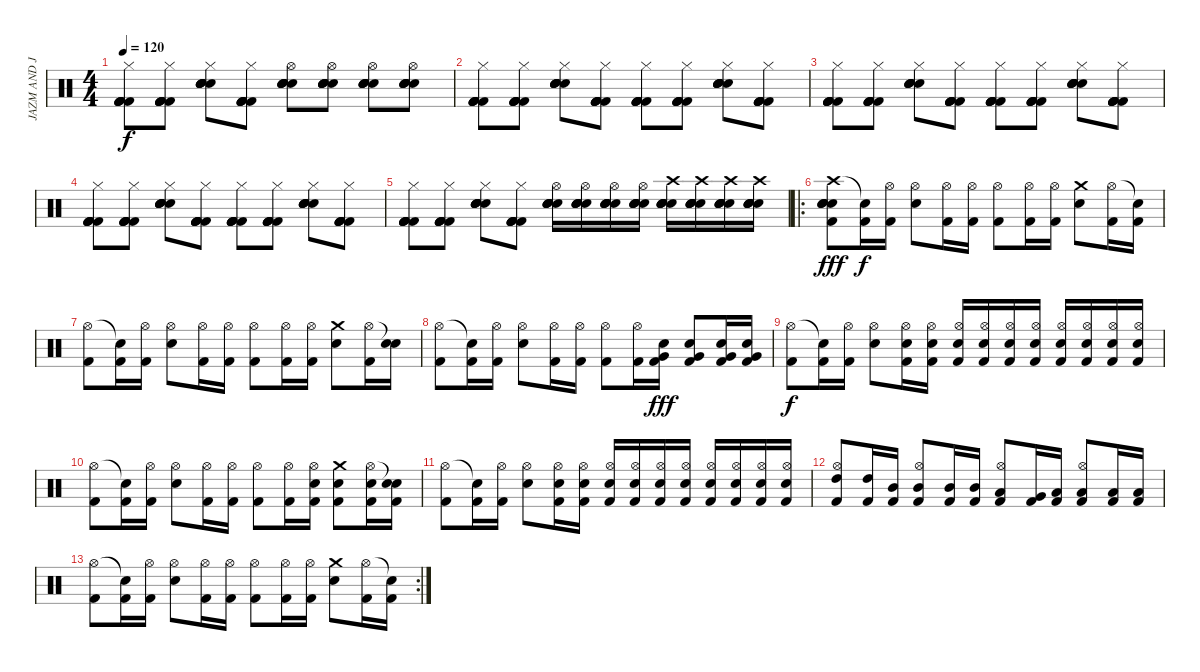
\track ("JAZM AND JOKER" "JAZM AND J") {instrument percussion}
\staff {score}
\articulation defaults
\ts (4 4)
\tempo 120
\clef neutral
\ks c
("Hi-Hat (closed)" "Kick (hit) 2" "Kick (hit) 2" "Kick (hit) 2" "Kick (hit) 2" "Kick (hit) 2").8{dy f} ("Hi-Hat (closed)" "Kick (hit) 2" "Kick (hit) 2" "Kick (hit) 2" "Kick (hit) 2" "Kick (hit) 2").8 ("Hi-Hat (closed)" "Snare (hit) 2" "Snare (hit) 2" "Snare (hit) 2" "Snare (hit) 2" "Snare (hit) 2").8 ("Hi-Hat (closed)" "Kick (hit) 2" "Kick (hit) 2" "Kick (hit) 2" "Kick (hit) 2" "Kick (hit) 2").8 ("Hi-Hat (open)" "Snare (hit) 2" "Snare (hit) 2" "Snare (hit) 2" "Snare (hit) 2" "Snare (hit) 2").8 ("Hi-Hat (open)" "Snare (hit) 2" "Snare (hit) 2" "Snare (hit) 2" "Snare (hit) 2" "Snare (hit) 2").8 ("Hi-Hat (open)" "Snare (hit) 2" "Snare (hit) 2" "Snare (hit) 2" "Snare (hit) 2" "Snare (hit) 2").8 ("Hi-Hat (open)" "Snare (hit) 2" "Snare (hit) 2" "Snare (hit) 2" "Snare (hit) 2" "Snare (hit) 2").8 |
("Hi-Hat (closed)" "Kick (hit) 2" "Kick (hit) 2" "Kick (hit) 2" "Kick (hit) 2" "Kick (hit) 2").8 ("Hi-Hat (closed)" "Kick (hit) 2" "Kick (hit) 2" "Kick (hit) 2" "Kick (hit) 2" "Kick (hit) 2").8 ("Hi-Hat (closed)" "Snare (hit) 2" "Snare (hit) 2" "Snare (hit) 2" "Snare (hit) 2" "Snare (hit) 2").8 ("Hi-Hat (closed)" "Kick (hit) 2" "Kick (hit) 2" "Kick (hit) 2" "Kick (hit) 2" "Kick (hit) 2").8 ("Hi-Hat (closed)" "Kick (hit) 2" "Kick (hit) 2" "Kick (hit) 2" "Kick (hit) 2" "Kick (hit) 2").8 ("Hi-Hat (closed)" "Kick (hit) 2" "Kick (hit) 2" "Kick (hit) 2" "Kick (hit) 2" "Kick (hit) 2").8 ("Hi-Hat (closed)" "Snare (hit) 2" "Snare (hit) 2" "Snare (hit) 2" "Snare (hit) 2" "Snare (hit) 2").8 ("Hi-Hat (closed)" "Kick (hit) 2" "Kick (hit) 2" "Kick (hit) 2" "Kick (hit) 2" "Kick (hit) 2").8 |
("Hi-Hat (closed)" "Kick (hit) 2" "Kick (hit) 2" "Kick (hit) 2" "Kick (hit) 2" "Kick (hit) 2").8 ("Hi-Hat (closed)" "Kick (hit) 2" "Kick (hit) 2" "Kick (hit) 2" "Kick (hit) 2" "Kick (hit) 2").8 ("Hi-Hat (closed)" "Snare (hit) 2" "Snare (hit) 2" "Snare (hit) 2" "Snare (hit) 2" "Snare (hit) 2").8 ("Hi-Hat (closed)" "Kick (hit) 2" "Kick (hit) 2" "Kick (hit) 2" "Kick (hit) 2" "Kick (hit) 2").8 ("Hi-Hat (closed)" "Kick (hit) 2" "Kick (hit) 2" "Kick (hit) 2" "Kick (hit) 2" "Kick (hit) 2").8 ("Hi-Hat (closed)" "Kick (hit) 2" "Kick (hit) 2" "Kick (hit) 2" "Kick (hit) 2" "Kick (hit) 2").8 ("Hi-Hat (closed)" "Snare (hit) 2" "Snare (hit) 2" "Snare (hit) 2" "Snare (hit) 2" "Snare (hit) 2").8 ("Hi-Hat (closed)" "Kick (hit) 2" "Kick (hit) 2" "Kick (hit) 2" "Kick (hit) 2" "Kick (hit) 2").8 |
("Hi-Hat (closed)" "Kick (hit) 2" "Kick (hit) 2" "Kick (hit) 2" "Kick (hit) 2" "Kick (hit) 2").8 ("Hi-Hat (closed)" "Kick (hit) 2" "Kick (hit) 2" "Kick (hit) 2" "Kick (hit) 2" "Kick (hit) 2").8 ("Hi-Hat (closed)" "Snare (hit) 2" "Snare (hit) 2" "Snare (hit) 2" "Snare (hit) 2" "Snare (hit) 2").8 ("Hi-Hat (closed)" "Kick (hit) 2" "Kick (hit) 2" "Kick (hit) 2" "Kick (hit) 2" "Kick (hit) 2").8 ("Hi-Hat (closed)" "Kick (hit) 2" "Kick (hit) 2" "Kick (hit) 2" "Kick (hit) 2" "Kick (hit) 2").8 ("Hi-Hat (closed)" "Kick (hit) 2" "Kick (hit) 2" "Kick (hit) 2" "Kick (hit) 2" "Kick (hit) 2").8 ("Hi-Hat (closed)" "Snare (hit) 2" "Snare (hit) 2" "Snare (hit) 2" "Snare (hit) 2" "Snare (hit) 2").8 ("Hi-Hat (closed)" "Kick (hit) 2" "Kick (hit) 2" "Kick (hit) 2" "Kick (hit) 2" "Kick (hit) 2").8 |
("Hi-Hat (closed)" "Kick (hit) 2" "Kick (hit) 2" "Kick (hit) 2" "Kick (hit) 2" "Kick (hit) 2").8 ("Hi-Hat (closed)" "Kick (hit) 2" "Kick (hit) 2" "Kick (hit) 2" "Kick (hit) 2" "Kick (hit) 2").8 ("Hi-Hat (closed)" "Snare (hit) 2" "Snare (hit) 2" "Snare (hit) 2" "Snare (hit) 2" "Snare (hit) 2").8 ("Hi-Hat (closed)" "Kick (hit) 2" "Kick (hit) 2" "Kick (hit) 2" "Kick (hit) 2" "Kick (hit) 2").8 ("Hi-Hat (open)" "Snare (hit) 2" "Snare (hit) 2" "Snare (hit) 2" "Snare (hit) 2" "Snare (hit) 2").16 ("Hi-Hat (open)" "Snare (hit) 2" "Snare (hit) 2" "Snare (hit) 2" "Snare (hit) 2" "Snare (hit) 2").16 ("Hi-Hat (open)" "Snare (hit) 2" "Snare (hit) 2" "Snare (hit) 2" "Snare (hit) 2" "Snare (hit) 2").16 ("Hi-Hat (open)" "Snare (hit) 2" "Snare (hit) 2" "Snare (hit) 2" "Snare (hit) 2" "Snare (hit) 2").16 ("Crash high (hit)" "Snare (hit) 2" "Snare (hit) 2" "Snare (hit) 2" "Snare (hit) 2" "Snare (hit) 2").16 ("Crash high (hit)" "Snare (hit) 2" "Snare (hit) 2" "Snare (hit) 2" "Snare (hit) 2" "Snare (hit) 2").16 ("Crash high (hit)" "Snare (hit) 2" "Snare (hit) 2" "Snare (hit) 2" "Snare (hit) 2" "Snare (hit) 2").16 ("Crash high (hit)" "Snare (hit) 2" "Snare (hit) 2" "Snare (hit) 2" "Snare (hit) 2" "Snare (hit) 2").16 |
\ro
("Crash high (hit)" "Electric Snare (hit)" "Electric Snare (hit)" "Electric Snare (hit)" "Electric Snare (hit)" "Kick (hit) 2").8{dy fff} ("Snare (hit)"{t} "Kick (hit) 2").16{dy f} ("Hi-Hat (open)" "Kick (hit) 2").16 ("Hi-Hat (open)" "Electric Snare (hit)").8 ("Hi-Hat (open)" "Kick (hit) 2").16 ("Hi-Hat (open)" "Kick (hit) 2").16 ("Hi-Hat (open)" "Kick (hit) 2").8 ("Hi-Hat (open)" "Kick (hit) 2").16 ("Hi-Hat (open)" "Kick (hit) 2").16 ("Crash medium (hit)" "Electric Snare (hit)").8 ("Hi-Hat (open)" "Kick (hit) 2").16 ("Snare (hit)"{t} "Kick (hit) 2").16 |
("Hi-Hat (open)" "Kick (hit) 2").8 ("Snare (hit)"{t} "Kick (hit) 2").16 ("Hi-Hat (open)" "Kick (hit) 2").16 ("Hi-Hat (open)" "Electric Snare (hit)").8 ("Hi-Hat (open)" "Kick (hit) 2").16 ("Hi-Hat (open)" "Kick (hit) 2").16 ("Hi-Hat (open)" "Kick (hit) 2").8 ("Hi-Hat (open)" "Kick (hit) 2").16 ("Hi-Hat (open)" "Kick (hit) 2").16 ("Crash medium (hit)" "Electric Snare (hit)").8 ("Hi-Hat (open)" "Kick (hit) 2").16 ("Snare (hit)"{t} "Electric Snare (hit)").16 |
("Hi-Hat (open)" "Kick (hit) 2").8 ("Snare (hit)"{t} "Kick (hit) 2").16 ("Hi-Hat (open)" "Kick (hit) 2").16 ("Hi-Hat (open)" "Electric Snare (hit)").8 ("Hi-Hat (open)" "Kick (hit) 2").16 ("Hi-Hat (open)" "Kick (hit) 2").16 ("Hi-Hat (open)" "Kick (hit) 2").8 ("Hi-Hat (open)" "Kick (hit) 2").16 ("Very Low Tom (hit)" "Kick (hit) 2" "Electric Snare (hit)").16{dy fff} ("Very Low Tom (hit)" "Kick (hit) 2" "Electric Snare (hit)").8 ("Very Low Tom (hit)" "Kick (hit) 2" "Electric Snare (hit)").16 ("Very Low Tom (hit)" "Kick (hit) 2" "Electric Snare (hit)").16 |
("Hi-Hat (open)" "Kick (hit) 2").8{dy f} ("Snare (hit)"{t} "Kick (hit) 2").16 ("Hi-Hat (open)" "Kick (hit) 2").16 ("Hi-Hat (open)" "Electric Snare (hit)").8 ("Hi-Hat (open)" "Kick (hit) 2" "Electric Snare (hit)").16 ("Hi-Hat (open)" "Kick (hit) 2" "Electric Snare (hit)").16 ("Hi-Hat (open)" "Kick (hit) 2" "Electric Snare (hit)").16 ("Hi-Hat (open)" "Kick (hit) 2" "Electric Snare (hit)").16 ("Hi-Hat (open)" "Kick (hit) 2" "Electric Snare (hit)").16 ("Hi-Hat (open)" "Kick (hit) 2" "Electric Snare (hit)").16 ("Hi-Hat (open)" "Kick (hit) 2" "Electric Snare (hit)").16 ("Hi-Hat (open)" "Kick (hit) 2" "Electric Snare (hit)").16 ("Hi-Hat (open)" "Kick (hit) 2" "Electric Snare (hit)").16 ("Hi-Hat (open)" "Kick (hit) 2" "Electric Snare (hit)").16 |
("Hi-Hat (open)" "Kick (hit) 2").8 ("Snare (hit)"{t} "Kick (hit) 2").16 ("Hi-Hat (open)" "Kick (hit) 2").16 ("Hi-Hat (open)" "Electric Snare (hit)").8 ("Hi-Hat (open)" "Kick (hit) 2").16 ("Hi-Hat (open)" "Kick (hit) 2").16 ("Hi-Hat (open)" "Kick (hit) 2").8 ("Hi-Hat (open)" "Kick (hit) 2").16 ("Hi-Hat (open)" "Kick (hit) 2" "Electric Snare (hit)").16 ("Crash medium (hit)" "Kick (hit) 2" "Electric Snare (hit)").8 ("Hi-Hat (open)" "Kick (hit) 2" "Electric Snare (hit)").16 ("Snare (hit)"{t} "Kick (hit) 2" "Electric Snare (hit)").16 |
("Hi-Hat (open)" "Kick (hit) 2").8 ("Snare (hit)"{t} "Kick (hit) 2").16 ("Hi-Hat (open)" "Kick (hit) 2").16 ("Hi-Hat (open)" "Electric Snare (hit)").8 ("Hi-Hat (open)" "Kick (hit) 2" "Electric Snare (hit)").16 ("Hi-Hat (open)" "Kick (hit) 2" "Electric Snare (hit)").16 ("Hi-Hat (open)" "Kick (hit) 2" "Electric Snare (hit)").16 ("Hi-Hat (open)" "Kick (hit) 2" "Electric Snare (hit)").16 ("Hi-Hat (open)" "Kick (hit) 2" "Electric Snare (hit)").16 ("Hi-Hat (open)" "Kick (hit) 2" "Electric Snare (hit)").16 ("Hi-Hat (open)" "Kick (hit) 2" "Electric Snare (hit)").16 ("Hi-Hat (open)" "Kick (hit) 2" "Electric Snare (hit)").16 ("Hi-Hat (open)" "Kick (hit) 2" "Electric Snare (hit)").16 ("Hi-Hat (open)" "Kick (hit) 2" "Electric Snare (hit)").16 |
("High Tom (hit)" "Hi-Hat (open)" "Kick (hit) 2").8 ("High Tom (hit)" "Kick (hit) 2").16 ("Mid Tom (hit)" "Kick (hit) 2").16 ("Mid Tom (hit)" "Hi-Hat (open)" "Kick (hit) 2").8 ("Mid Tom (hit)" "Kick (hit) 2").16 ("Mid Tom (hit)" "Kick (hit) 2").16 ("Low Tom (hit)" "Hi-Hat (open)" "Kick (hit) 2").8 ("Very Low Tom (hit)" "Kick (hit) 2").16 ("Low Floor Tom (hit)" "Kick (hit) 2").16 ("Low Floor Tom (hit)" "Hi-Hat (open)" "Kick (hit) 2").8 ("Low Floor Tom (hit)" "Kick (hit) 2").16 ("Low Floor Tom (hit)" "Kick (hit) 2").16 |
\rc 2
("Hi-Hat (open)" "Kick (hit) 2").8 ("Snare (hit)"{t} "Kick (hit) 2").16 ("Hi-Hat (open)" "Kick (hit) 2").16 ("Hi-Hat (open)" "Electric Snare (hit)").8 ("Hi-Hat (open)" "Kick (hit) 2").16 ("Hi-Hat (open)" "Kick (hit) 2").16 ("Hi-Hat (open)" "Kick (hit) 2").8 ("Hi-Hat (open)" "Kick (hit) 2").16 ("Hi-Hat (open)" "Kick (hit) 2").16 ("Crash medium (hit)" "Electric Snare (hit)").8 ("Hi-Hat (open)" "Kick (hit) 2").16 ("Snare (hit)"{t} "Kick (hit) 2").16
